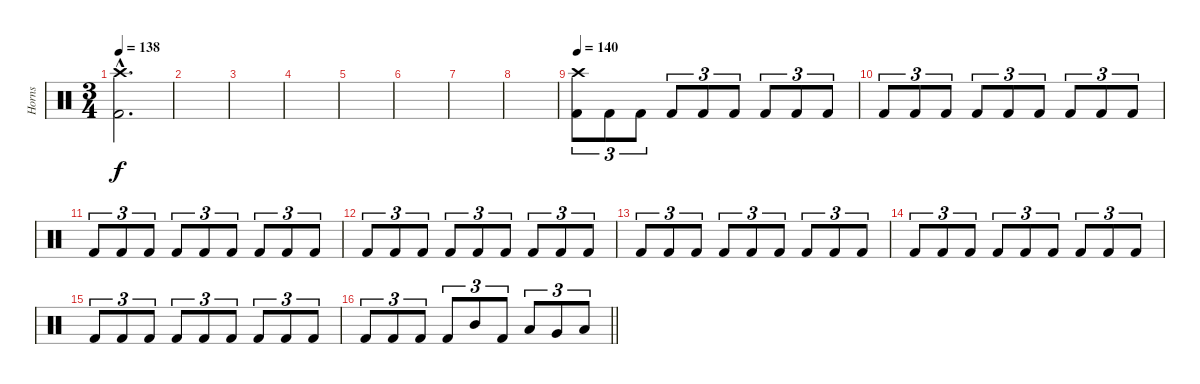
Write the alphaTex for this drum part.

\track ("Horns" "Horns") {instrument percussion}
\staff {score}
\articulation defaults
\ts (3 4)
\tempo 138
\clef neutral
\ks c
("Crash high (hit)"{hac} "Kick (hit) 2"{hac}).2{d dy f} |
|
|
|
|
|
|
|
\tempo 140
("Crash high (hit)" "Kick (hit) 2").8{tu (3 2)} "Kick (hit) 2".8{tu (3 2)} "Kick (hit) 2".8{tu (3 2)} "Kick (hit) 2".8{tu (3 2)} "Kick (hit) 2".8{tu (3 2)} "Kick (hit) 2".8{tu (3 2)} "Kick (hit) 2".8{tu (3 2)} "Kick (hit) 2".8{tu (3 2)} "Kick (hit) 2".8{tu (3 2)} |
"Kick (hit) 2".8{tu (3 2)} "Kick (hit) 2".8{tu (3 2)} "Kick (hit) 2".8{tu (3 2)} "Kick (hit) 2".8{tu (3 2)} "Kick (hit) 2".8{tu (3 2)} "Kick (hit) 2".8{tu (3 2)} "Kick (hit) 2".8{tu (3 2)} "Kick (hit) 2".8{tu (3 2)} "Kick (hit) 2".8{tu (3 2)} |
"Kick (hit) 2".8{tu (3 2)} "Kick (hit) 2".8{tu (3 2)} "Kick (hit) 2".8{tu (3 2)} "Kick (hit) 2".8{tu (3 2)} "Kick (hit) 2".8{tu (3 2)} "Kick (hit) 2".8{tu (3 2)} "Kick (hit) 2".8{tu (3 2)} "Kick (hit) 2".8{tu (3 2)} "Kick (hit) 2".8{tu (3 2)} |
"Kick (hit) 2".8{tu (3 2)} "Kick (hit) 2".8{tu (3 2)} "Kick (hit) 2".8{tu (3 2)} "Kick (hit) 2".8{tu (3 2)} "Kick (hit) 2".8{tu (3 2)} "Kick (hit) 2".8{tu (3 2)} "Kick (hit) 2".8{tu (3 2)} "Kick (hit) 2".8{tu (3 2)} "Kick (hit) 2".8{tu (3 2)} |
"Kick (hit) 2".8{tu (3 2)} "Kick (hit) 2".8{tu (3 2)} "Kick (hit) 2".8{tu (3 2)} "Kick (hit) 2".8{tu (3 2)} "Kick (hit) 2".8{tu (3 2)} "Kick (hit) 2".8{tu (3 2)} "Kick (hit) 2".8{tu (3 2)} "Kick (hit) 2".8{tu (3 2)} "Kick (hit) 2".8{tu (3 2)} |
"Kick (hit) 2".8{tu (3 2)} "Kick (hit) 2".8{tu (3 2)} "Kick (hit) 2".8{tu (3 2)} "Kick (hit) 2".8{tu (3 2)} "Kick (hit) 2".8{tu (3 2)} "Kick (hit) 2".8{tu (3 2)} "Kick (hit) 2".8{tu (3 2)} "Kick (hit) 2".8{tu (3 2)} "Kick (hit) 2".8{tu (3 2)} |
"Kick (hit) 2".8{tu (3 2)} "Kick (hit) 2".8{tu (3 2)} "Kick (hit) 2".8{tu (3 2)} "Kick (hit) 2".8{tu (3 2)} "Kick (hit) 2".8{tu (3 2)} "Kick (hit) 2".8{tu (3 2)} "Kick (hit) 2".8{tu (3 2)} "Kick (hit) 2".8{tu (3 2)} "Kick (hit) 2".8{tu (3 2)} |
\barLineRight lightlight "Kick (hit) 2".8{tu (3 2)} "Kick (hit) 2".8{tu (3 2)} "Kick (hit) 2".8{tu (3 2)} "Kick (hit) 2".8{tu (3 2)} "Mid Tom (hit)".8{tu (3 2)} "Kick (hit) 2".8{tu (3 2)} "Low Tom (hit)".8{tu (3 2)} "Very Low Tom (hit)".8{tu (3 2)} "Low Floor Tom (hit)".8{tu (3 2)}
